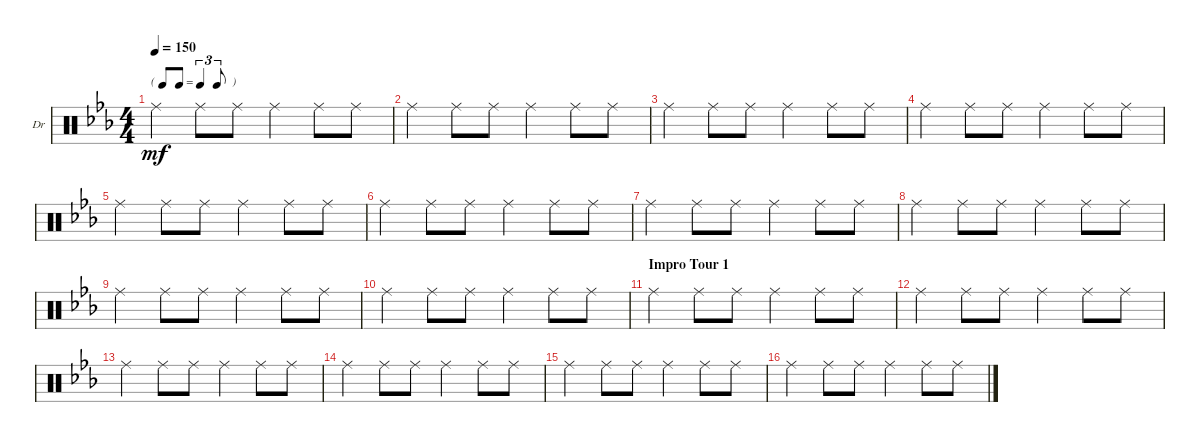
\defaultSystemsLayout 4
\bracketExtendMode nobrackets
\firstSystemTrackNameOrientation horizontal
\otherSystemsTrackNameOrientation horizontal
\chordDiagramsInScore
\track ("Drums" "Dr") {instrument percussion}
\staff {score}
\articulation defaults
\ts (4 4)
\tf triplet8th
\tempo 150
\clef neutral
\ks cminor "Ride (middle)".4{dy mf} "Ride (middle)".8 "Ride (middle)".8 "Ride (middle)".4 "Ride (middle)".8 "Ride (middle)".8
|
"Ride (middle)".4 "Ride (middle)".8 "Ride (middle)".8 "Ride (middle)".4 "Ride (middle)".8 "Ride (middle)".8 |
"Ride (middle)".4 "Ride (middle)".8 "Ride (middle)".8 "Ride (middle)".4 "Ride (middle)".8 "Ride (middle)".8 |
"Ride (middle)".4 "Ride (middle)".8 "Ride (middle)".8 "Ride (middle)".4 "Ride (middle)".8 "Ride (middle)".8 |
"Ride (middle)".4 "Ride (middle)".8 "Ride (middle)".8 "Ride (middle)".4 "Ride (middle)".8 "Ride (middle)".8 |
"Ride (middle)".4 "Ride (middle)".8 "Ride (middle)".8 "Ride (middle)".4 "Ride (middle)".8 "Ride (middle)".8 |
"Ride (middle)".4 "Ride (middle)".8 "Ride (middle)".8 "Ride (middle)".4 "Ride (middle)".8 "Ride (middle)".8 |
"Ride (middle)".4 "Ride (middle)".8 "Ride (middle)".8 "Ride (middle)".4 "Ride (middle)".8 "Ride (middle)".8 |
"Ride (middle)".4 "Ride (middle)".8 "Ride (middle)".8 "Ride (middle)".4 "Ride (middle)".8 "Ride (middle)".8 |
"Ride (middle)".4 "Ride (middle)".8 "Ride (middle)".8 "Ride (middle)".4 "Ride (middle)".8 "Ride (middle)".8 |
\section ("" "Impro Tour 1")
"Ride (middle)".4 "Ride (middle)".8 "Ride (middle)".8 "Ride (middle)".4 "Ride (middle)".8 "Ride (middle)".8 |
"Ride (middle)".4 "Ride (middle)".8 "Ride (middle)".8 "Ride (middle)".4 "Ride (middle)".8 "Ride (middle)".8 |
"Ride (middle)".4 "Ride (middle)".8 "Ride (middle)".8 "Ride (middle)".4 "Ride (middle)".8 "Ride (middle)".8 |
"Ride (middle)".4 "Ride (middle)".8 "Ride (middle)".8 "Ride (middle)".4 "Ride (middle)".8 "Ride (middle)".8 |
"Ride (middle)".4 "Ride (middle)".8 "Ride (middle)".8 "Ride (middle)".4 "Ride (middle)".8 "Ride (middle)".8 |
"Ride (middle)".4 "Ride (middle)".8 "Ride (middle)".8 "Ride (middle)".4 "Ride (middle)".8 "Ride (middle)".8
